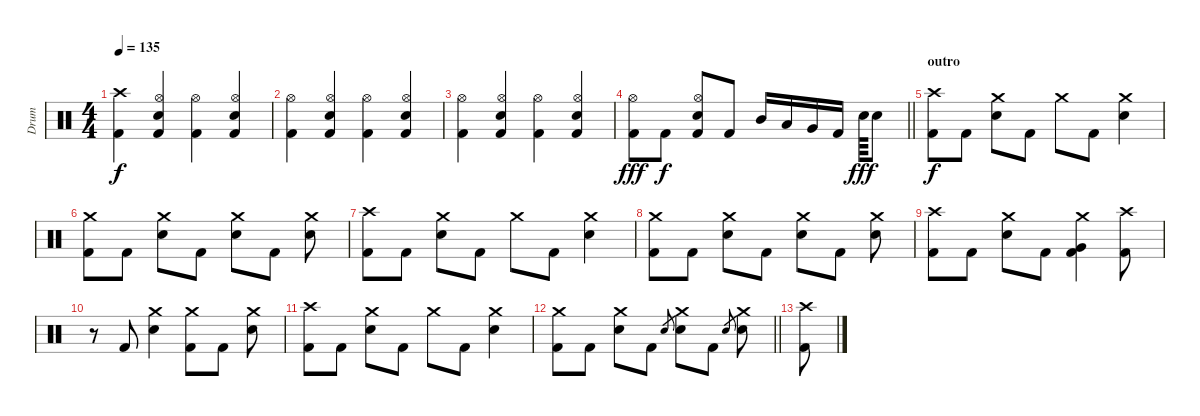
\track ("Drum" "Drum") {instrument percussion bank 127}
\staff {score}
\articulation defaults
\ts (4 4)
\tempo 135
\clef neutral
\ks c
("Kick (hit) 2" "Crash high (hit)").4{dy f} ("Hi-Hat (open)" "Kick (hit) 2" "Electric Snare (hit)").4 ("Hi-Hat (open)" "Kick (hit) 2").4 ("Hi-Hat (open)" "Kick (hit) 2" "Electric Snare (hit)").4 |
("Hi-Hat (open)" "Kick (hit) 2").4 ("Hi-Hat (open)" "Kick (hit) 2" "Electric Snare (hit)").4 ("Hi-Hat (open)" "Kick (hit) 2").4 ("Hi-Hat (open)" "Kick (hit) 2" "Electric Snare (hit)").4 |
("Hi-Hat (open)" "Kick (hit) 2").4 ("Hi-Hat (open)" "Kick (hit) 2" "Electric Snare (hit)").4 ("Hi-Hat (open)" "Kick (hit) 2").4 ("Hi-Hat (open)" "Kick (hit) 2" "Electric Snare (hit)").4 |
\barLineRight lightlight
("Hi-Hat (open)" "Kick (hit) 2").8{dy fff} "Kick (hit) 2".8{dy f} ("Hi-Hat (open)" "Kick (hit) 2" "Electric Snare (hit)").8 "Kick (hit) 2".8 "Mid Tom (hit)".16 "Low Tom (hit)".16 "Very Low Tom (hit)".16 "Kick (hit) 2".16 "Electric Snare (hit)".64{dy fff} "Electric Snare (hit)".8 |
\section ("" "outro")
("Crash high (hit)" "Kick (hit) 2").8{dy f} "Kick (hit) 2".8 ("Crash medium (hit)" "Electric Snare (hit)").8 "Kick (hit) 2".8 "Crash medium (hit)".8 "Kick (hit) 2".8 ("Crash medium (hit)" "Electric Snare (hit)").4 |
("Crash medium (hit)" "Kick (hit) 2").8 "Kick (hit) 2".8 ("Crash medium (hit)" "Electric Snare (hit)").8 "Kick (hit) 2".8 ("Crash medium (hit)" "Electric Snare (hit)").8 "Kick (hit) 2".8 ("Crash medium (hit)" "Electric Snare (hit)").8 |
("Crash high (hit)" "Kick (hit) 2").8 "Kick (hit) 2".8 ("Crash medium (hit)" "Electric Snare (hit)").8 "Kick (hit) 2".8 "Crash medium (hit)".8 "Kick (hit) 2".8 ("Crash medium (hit)" "Electric Snare (hit)").4 |
("Crash medium (hit)" "Kick (hit) 2").8 "Kick (hit) 2".8 ("Crash medium (hit)" "Electric Snare (hit)").8 "Kick (hit) 2".8 ("Crash medium (hit)" "Electric Snare (hit)").8 "Kick (hit) 2".8 ("Crash medium (hit)" "Electric Snare (hit)").8 |
("Crash high (hit)" "Kick (hit) 2").8 "Kick (hit) 2".8 ("Crash medium (hit)" "Electric Snare (hit)").8 "Kick (hit) 2".8 ("Crash medium (hit)" "Kick (hit) 2" "Very Low Tom (hit)").4 ("Crash high (hit)" "Kick (hit) 2").8 |
r.8 "Kick (hit) 2".8 ("Crash medium (hit)" "Electric Snare (hit)").4 ("Crash medium (hit)" "Kick (hit) 2").8 "Kick (hit) 2".8 ("Crash medium (hit)" "Electric Snare (hit)").8 |
("Crash high (hit)" "Kick (hit) 2").8 "Kick (hit) 2".8 ("Crash medium (hit)" "Electric Snare (hit)").8 "Kick (hit) 2".8 "Crash medium (hit)".8 "Kick (hit) 2".8 ("Crash medium (hit)" "Electric Snare (hit)").4 |
\barLineRight lightlight
("Crash medium (hit)" "Kick (hit) 2").8 "Kick (hit) 2".8 ("Crash medium (hit)" "Electric Snare (hit)").8 "Kick (hit) 2".8 "Electric Snare (hit)".8{gr} ("Crash medium (hit)" "Electric Snare (hit)").8 "Kick (hit) 2".8 "Electric Snare (hit)".8{gr} ("Crash medium (hit)" "Electric Snare (hit)").8 |
("Crash high (hit)" "Kick (hit) 2").8
